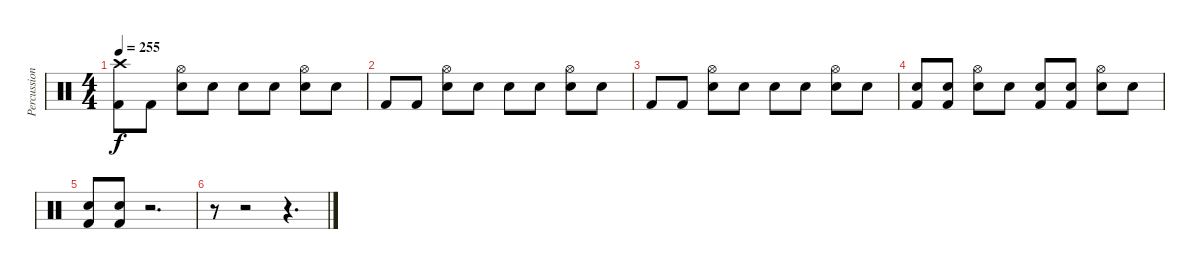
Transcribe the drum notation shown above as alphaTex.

\track ("Percussion" "Percussion") {instrument percussion}
\staff {score}
\articulation defaults
\ts (4 4)
\tempo 255
\clef neutral
\ks c
("Kick (hit) 2" "Crash high (hit)").8{dy f} "Kick (hit) 2".8 ("Snare (hit) 2" "Hi-Hat (open)").8 "Snare (hit)".8 "Snare (hit)".8 "Snare (hit)".8 ("Snare (hit) 2" "Hi-Hat (open)").8 "Snare (hit)".8 |
"Kick (hit) 2".8 "Kick (hit) 2".8 ("Snare (hit) 2" "Hi-Hat (open)").8 "Snare (hit)".8 "Snare (hit)".8 "Snare (hit)".8 ("Snare (hit) 2" "Hi-Hat (open)").8 "Snare (hit)".8 |
"Kick (hit) 2".8 "Kick (hit) 2".8 ("Snare (hit) 2" "Hi-Hat (open)").8 "Snare (hit)".8 "Snare (hit)".8 "Snare (hit)".8 ("Snare (hit) 2" "Hi-Hat (open)").8 "Snare (hit)".8 |
("Kick (hit) 2" "Snare (hit)").8 ("Kick (hit) 2" "Snare (hit)").8 ("Snare (hit) 2" "Hi-Hat (open)").8 "Snare (hit)".8 ("Kick (hit) 2" "Snare (hit)").8 ("Kick (hit) 2" "Snare (hit)").8 ("Snare (hit) 2" "Hi-Hat (open)").8 "Snare (hit)".8 |
("Kick (hit) 2" "Snare (hit) 2").8 ("Kick (hit) 2" "Snare (hit) 2").8 r.2{d} |
r.8 r.2 r.4{d}
